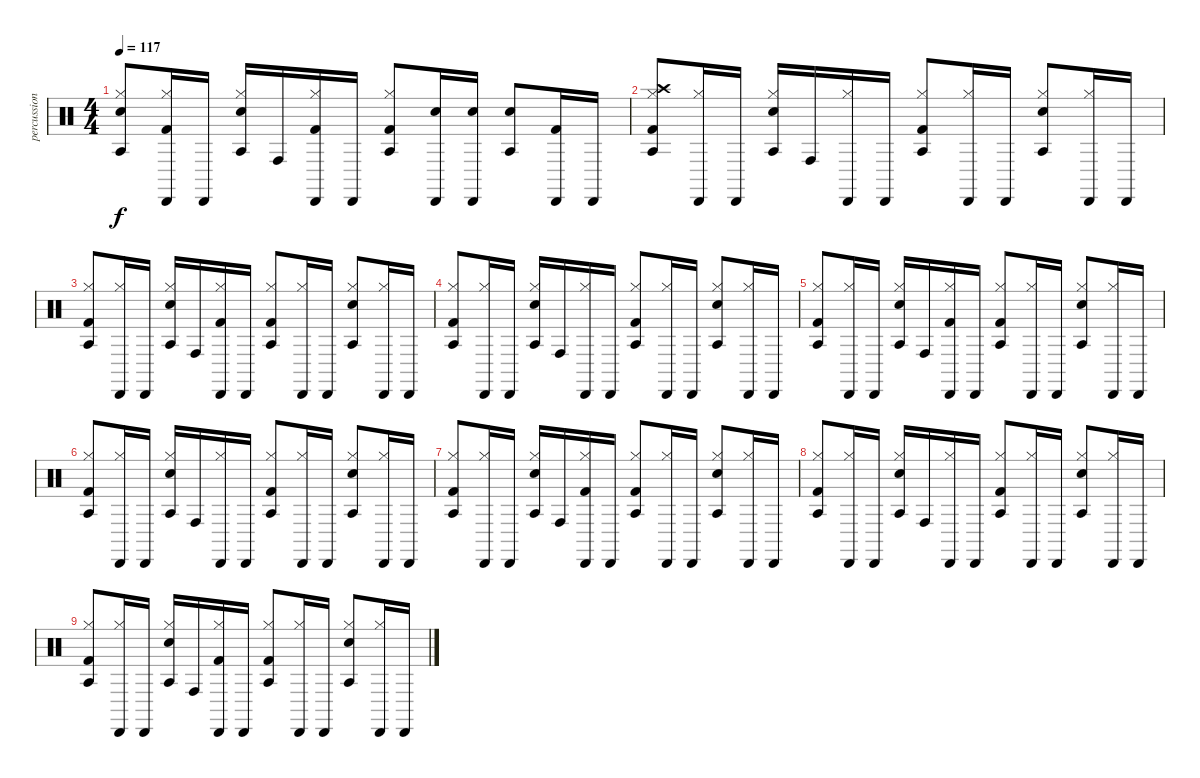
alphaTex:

\track ("percussion" "percussion") {instrument percussion}
\staff {score}
\articulation defaults
\ts (4 4)
\tempo 117
\clef neutral
\ks c
("Agogo tow (hit)" "Snare (hit) 2" "Hi-Hat (closed)").8{dy f} ("Cabasa (hit)" "Hi-Hat (closed)" "Kick (hit) 2").16 "Cabasa (hit)".16 ("Agogo tow (hit)" "Snare (hit) 2" "Hi-Hat (closed)").16 "Conga high (hit)".16 ("Cabasa (hit)" "Hi-Hat (closed)" "Kick (hit) 2").16 "Cabasa (hit)".16 ("Agogo tow (hit)" "Hi-Hat (closed)" "Kick (hit) 2").8 ("Cabasa (hit)" "Snare (hit) 2").16 ("Cabasa (hit)" "Snare (hit) 2").16 ("Agogo tow (hit)" "Snare (hit) 2").8 ("Cabasa (hit)" "Kick (hit) 2").16 "Cabasa (hit)".16 |
("Crash high (hit)" "Agogo tow (hit)" "Hi-Hat (closed)" "Kick (hit) 2").8 ("Cabasa (hit)" "Hi-Hat (closed)").16 "Cabasa (hit)".16 ("Agogo tow (hit)" "Snare (hit) 2" "Hi-Hat (closed)").16 "Conga high (hit)".16 ("Cabasa (hit)" "Hi-Hat (closed)").16 "Cabasa (hit)".16 ("Agogo tow (hit)" "Hi-Hat (closed)" "Kick (hit) 2").8 ("Cabasa (hit)" "Hi-Hat (closed)").16 "Cabasa (hit)".16 ("Agogo tow (hit)" "Snare (hit) 2" "Hi-Hat (closed)").8 ("Cabasa (hit)" "Hi-Hat (closed)").16 "Cabasa (hit)".16 |
("Agogo tow (hit)" "Hi-Hat (closed)" "Kick (hit) 2").8 ("Cabasa (hit)" "Hi-Hat (closed)").16 "Cabasa (hit)".16 ("Agogo tow (hit)" "Snare (hit) 2" "Hi-Hat (closed)").16 "Conga high (hit)".16 ("Cabasa (hit)" "Hi-Hat (closed)" "Kick (hit) 2").16 "Cabasa (hit)".16 ("Agogo tow (hit)" "Hi-Hat (closed)" "Kick (hit) 2").8 ("Cabasa (hit)" "Hi-Hat (closed)").16 "Cabasa (hit)".16 ("Agogo tow (hit)" "Snare (hit) 2" "Hi-Hat (closed)").8 ("Cabasa (hit)" "Hi-Hat (closed)").16 "Cabasa (hit)".16 |
("Agogo tow (hit)" "Hi-Hat (closed)" "Kick (hit) 2").8 ("Cabasa (hit)" "Hi-Hat (closed)").16 "Cabasa (hit)".16 ("Agogo tow (hit)" "Snare (hit) 2" "Hi-Hat (closed)").16 "Conga high (hit)".16 ("Cabasa (hit)" "Hi-Hat (closed)").16 "Cabasa (hit)".16 ("Agogo tow (hit)" "Hi-Hat (closed)" "Kick (hit) 2").8 ("Cabasa (hit)" "Hi-Hat (closed)").16 "Cabasa (hit)".16 ("Agogo tow (hit)" "Snare (hit) 2" "Hi-Hat (closed)").8 ("Cabasa (hit)" "Hi-Hat (closed)").16 "Cabasa (hit)".16 |
("Agogo tow (hit)" "Hi-Hat (closed)" "Kick (hit) 2").8 ("Cabasa (hit)" "Hi-Hat (closed)").16 "Cabasa (hit)".16 ("Agogo tow (hit)" "Snare (hit) 2" "Hi-Hat (closed)").16 "Conga high (hit)".16 ("Cabasa (hit)" "Hi-Hat (closed)" "Kick (hit) 2").16 "Cabasa (hit)".16 ("Agogo tow (hit)" "Hi-Hat (closed)" "Kick (hit) 2").8 ("Cabasa (hit)" "Hi-Hat (closed)").16 "Cabasa (hit)".16 ("Agogo tow (hit)" "Snare (hit) 2" "Hi-Hat (closed)").8 ("Cabasa (hit)" "Hi-Hat (closed)").16 "Cabasa (hit)".16 |
("Agogo tow (hit)" "Hi-Hat (closed)" "Kick (hit) 2").8 ("Cabasa (hit)" "Hi-Hat (closed)").16 "Cabasa (hit)".16 ("Agogo tow (hit)" "Snare (hit) 2" "Hi-Hat (closed)").16 "Conga high (hit)".16 ("Cabasa (hit)" "Hi-Hat (closed)").16 "Cabasa (hit)".16 ("Agogo tow (hit)" "Hi-Hat (closed)" "Kick (hit) 2").8 ("Cabasa (hit)" "Hi-Hat (closed)").16 "Cabasa (hit)".16 ("Agogo tow (hit)" "Snare (hit) 2" "Hi-Hat (closed)").8 ("Cabasa (hit)" "Hi-Hat (closed)").16 "Cabasa (hit)".16 |
("Agogo tow (hit)" "Hi-Hat (closed)" "Kick (hit) 2").8 ("Cabasa (hit)" "Hi-Hat (closed)").16 "Cabasa (hit)".16 ("Agogo tow (hit)" "Snare (hit) 2" "Hi-Hat (closed)").16 "Conga high (hit)".16 ("Cabasa (hit)" "Hi-Hat (closed)" "Kick (hit) 2").16 "Cabasa (hit)".16 ("Agogo tow (hit)" "Hi-Hat (closed)" "Kick (hit) 2").8 ("Cabasa (hit)" "Hi-Hat (closed)").16 "Cabasa (hit)".16 ("Agogo tow (hit)" "Snare (hit) 2" "Hi-Hat (closed)").8 ("Cabasa (hit)" "Hi-Hat (closed)").16 "Cabasa (hit)".16 |
("Agogo tow (hit)" "Hi-Hat (closed)" "Kick (hit) 2").8 ("Cabasa (hit)" "Hi-Hat (closed)").16 "Cabasa (hit)".16 ("Agogo tow (hit)" "Snare (hit) 2" "Hi-Hat (closed)").16 "Conga high (hit)".16 ("Cabasa (hit)" "Hi-Hat (closed)").16 "Cabasa (hit)".16 ("Agogo tow (hit)" "Hi-Hat (closed)" "Kick (hit) 2").8 ("Cabasa (hit)" "Hi-Hat (closed)").16 "Cabasa (hit)".16 ("Agogo tow (hit)" "Snare (hit) 2" "Hi-Hat (closed)").8 ("Cabasa (hit)" "Hi-Hat (closed)").16 "Cabasa (hit)".16 |
("Agogo tow (hit)" "Hi-Hat (closed)" "Kick (hit) 2").8 ("Cabasa (hit)" "Hi-Hat (closed)").16 "Cabasa (hit)".16 ("Agogo tow (hit)" "Snare (hit) 2" "Hi-Hat (closed)").16 "Conga high (hit)".16 ("Cabasa (hit)" "Hi-Hat (closed)" "Kick (hit) 2").16 "Cabasa (hit)".16 ("Agogo tow (hit)" "Hi-Hat (closed)" "Kick (hit) 2").8 ("Cabasa (hit)" "Hi-Hat (closed)").16 "Cabasa (hit)".16 ("Agogo tow (hit)" "Snare (hit) 2" "Hi-Hat (closed)").8 ("Cabasa (hit)" "Hi-Hat (closed)").16 "Cabasa (hit)".16
